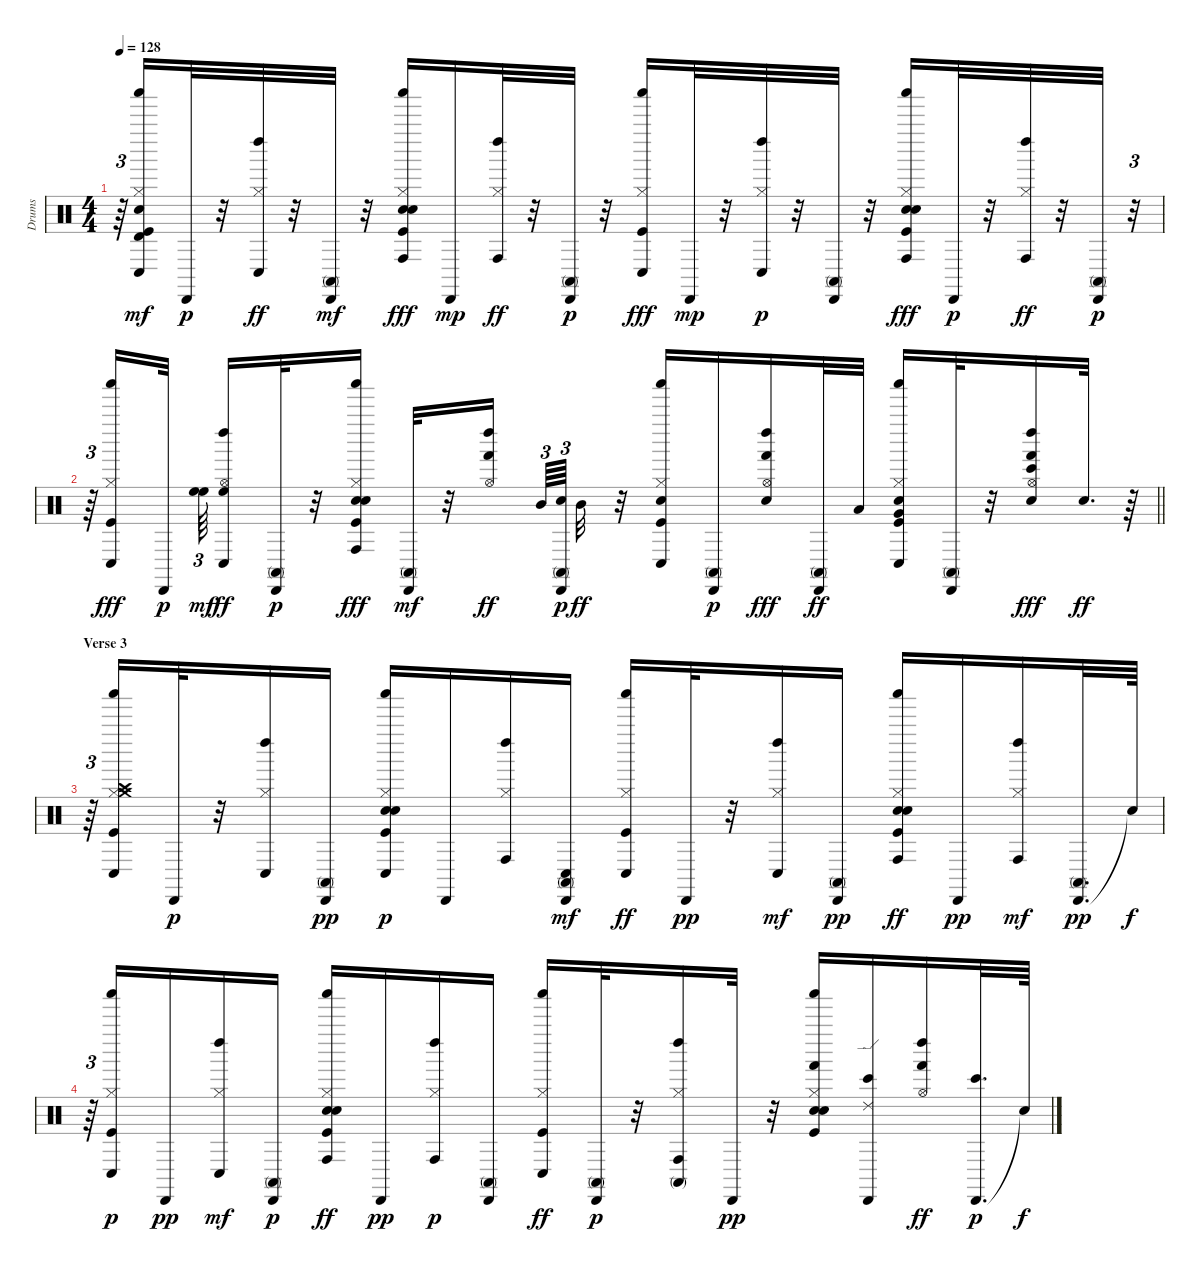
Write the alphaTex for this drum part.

\track ("Drums" "Drums") {instrument percussion}
\staff {score}
\articulation defaults
\ts (4 4)
\tempo 128
\clef neutral
\ks c
r.64{tu (3 2) dy p} ("Kick (hit)" "Snare (hit) 2" "Hi-Hat (closed)" "Shaker (hit)" "Conga low (hit)" "Timbale high (hit)").16{dy mf} "Cabasa (hit)".32{dy p} r.32 ("Hi-Hat (closed)" "Left Maraca (hit)" "Conga low (hit)").32{dy ff} r.32 ("Cabasa (hit)" "Conga high (mute)").32{dy mf} r.32 ("Kick (hit)" "Snare (hit) 2" "Hand Clap (hit)" "Hi-Hat (closed)" "Shaker (hit)" "Conga high (hit)").16{dy fff} "Cabasa (hit)".16{dy mp} ("Hi-Hat (closed)" "Left Maraca (hit)" "Conga high (hit)").32{dy ff} r.32 ("Cabasa (hit)" "Conga high (mute)").32{dy p} r.32 ("Kick (hit)" "Hi-Hat (closed)" "Shaker (hit)" "Conga low (hit)").16{dy fff} "Cabasa (hit)".32{dy mp} r.32 ("Hi-Hat (closed)" "Left Maraca (hit)" "Conga low (hit)").32{dy p} r.32 ("Cabasa (hit)" "Conga high (mute)").32 r.32 ("Kick (hit)" "Snare (hit) 2" "Hand Clap (hit)" "Hi-Hat (closed)" "Shaker (hit)" "Conga high (hit)").16{dy fff} "Cabasa (hit)".32{dy p} r.32 ("Hi-Hat (closed)" "Left Maraca (hit)" "Conga high (hit)").32{dy ff} r.32 ("Cabasa (hit)" "Conga high (mute)").32{dy p} r.32{tu (3 2)} |
\barLineRight lightlight
r.64{tu (3 2)} ("Kick (hit)" "Hi-Hat (closed)" "Shaker (hit)" "Conga low (hit)").16{dy fff} "Cabasa (hit)".32{dy p beam splitsecondary} ("High Floor Tom (hit)" "High Floor Tom (hit)").64{tu (3 2) dy mf beam splitsecondary} ("Hi-Hat (open)" "Left Maraca (hit)" "High Floor Tom (hit)" "Conga low (hit)").16{dy ff} ("Cabasa (hit)" "Conga high (mute)").32{dy p} r.32 ("Kick (hit)" "Snare (hit) 2" "Hand Clap (hit)" "Hi-Hat (closed)" "Shaker (hit)" "Conga high (hit)").16{dy fff} ("Cabasa (hit)" "Conga high (mute)").32{dy mf} r.32 ("Hi-Hat (open)" "Left Maraca (hit)" "Hand (hit)").16{dy ff beam splitsecondary} "Mid Tom (hit)".64{tu (3 2)} ("Snare (hit) 2" "Cabasa (hit)" "Conga high (mute)").64{tu (3 2) dy p beam splitsecondary} "Mid Tom (hit)".32{dy ff} r.32 ("Kick (hit)" "Snare (hit) 2" "Hi-Hat (closed)" "Shaker (hit)" "Conga low (hit)").16 ("Cabasa (hit)" "Conga high (mute)").16{dy p} ("Snare (hit) 2" "Hi-Hat (open)" "Left Maraca (hit)" "Hand (hit)").16{dy fff} ("Cabasa (hit)" "Conga high (mute)").32{dy ff} "Low Tom (hit)".32 ("Kick (hit)" "Hand Clap (hit)" "Hi-Hat (closed)" "Shaker (hit)" "Conga low (hit)" "Very Low Tom (hit)").16 ("Cabasa (hit)" "Conga high (mute)").32 r.32 ("Snare (hit) 2" "Hi-Hat (open)" "Left Maraca (hit)" "Hand (hit)" "Bongo High (hit)").16{dy fff} "Snare (hit) 2".32{d dy ff} r.64 |
\section ("" "Verse 3")
r.64{tu (3 2)} ("Kick (hit)" "Hi-Hat (closed)" "Crash high (hit)" "Crash medium (hit)" "Shaker (hit)" "Conga low (hit)").16 "Cabasa (hit)".32{dy p} r.32 ("Hi-Hat (closed)" "Left Maraca (hit)" "Conga low (hit)").16 ("Cabasa (hit)" "Conga high (mute)").16{dy pp} ("Kick (hit)" "Electric Snare (hit)" "Hand Clap (hit)" "Hi-Hat (closed)" "Shaker (hit)" "Conga low (hit)").16{dy p} "Cabasa (hit)".16 ("Hi-Hat (closed)" "Left Maraca (hit)" "Conga high (hit)").16 ("Cabasa (hit)" "Conga high (mute)" "Conga low (hit)").16{dy mf} ("Kick (hit)" "Hi-Hat (closed)" "Shaker (hit)" "Conga low (hit)").16{dy ff} "Cabasa (hit)".32{dy pp} r.32 ("Hi-Hat (closed)" "Left Maraca (hit)" "Conga low (hit)").16{dy mf} ("Cabasa (hit)" "Conga high (mute)").16{dy pp} ("Kick (hit)" "Electric Snare (hit)" "Hand Clap (hit)" "Hi-Hat (closed)" "Shaker (hit)" "Conga high (hit)").16{dy ff} "Cabasa (hit)".16{dy pp} ("Hi-Hat (closed)" "Left Maraca (hit)" "Conga high (hit)").16{dy mf} ("Cabasa (hit)" "Conga high (mute)").32{d dy pp} "Snare (hit)"{t}.64{dy f} |
r.64{tu (3 2)} ("Kick (hit)" "Hi-Hat (closed)" "Shaker (hit)" "Conga low (hit)").16{dy p} "Cabasa (hit)".16{dy pp} ("Hi-Hat (closed)" "Left Maraca (hit)" "Conga low (hit)").16{dy mf} ("Cabasa (hit)" "Conga high (mute)").16{dy p} ("Kick (hit)" "Electric Snare (hit)" "Hand Clap (hit)" "Hi-Hat (closed)" "Shaker (hit)" "Conga high (hit)").16{dy ff} "Cabasa (hit)".16{dy pp} ("Hi-Hat (closed)" "Left Maraca (hit)" "Conga high (hit)").16{dy p} ("Cabasa (hit)" "Conga high (mute)").16 ("Kick (hit)" "Hi-Hat (closed)" "Shaker (hit)" "Conga low (hit)").16{dy ff} ("Cabasa (hit)" "Conga high (mute)").32{dy p} r.32 ("Hi-Hat (closed)" "Left Maraca (hit)" "Conga high (hit)" "Conga high (mute)").16 "Cabasa (hit)".32{dy pp} r.32 ("Kick (hit)" "Electric Snare (hit)" "Hand Clap (hit)" "Hi-Hat (closed)" "Shaker (hit)" "Hand (hit)").16 ("Cabasa (hit)" "Bongo High (hit)" "Ride (edge) 2").16 ("Hi-Hat (open)" "Left Maraca (hit)" "Hand (hit)").16{dy ff} ("Cabasa (hit)" "Bongo High (hit)").32{d dy p} "Snare (hit)"{t}.64{dy f}
